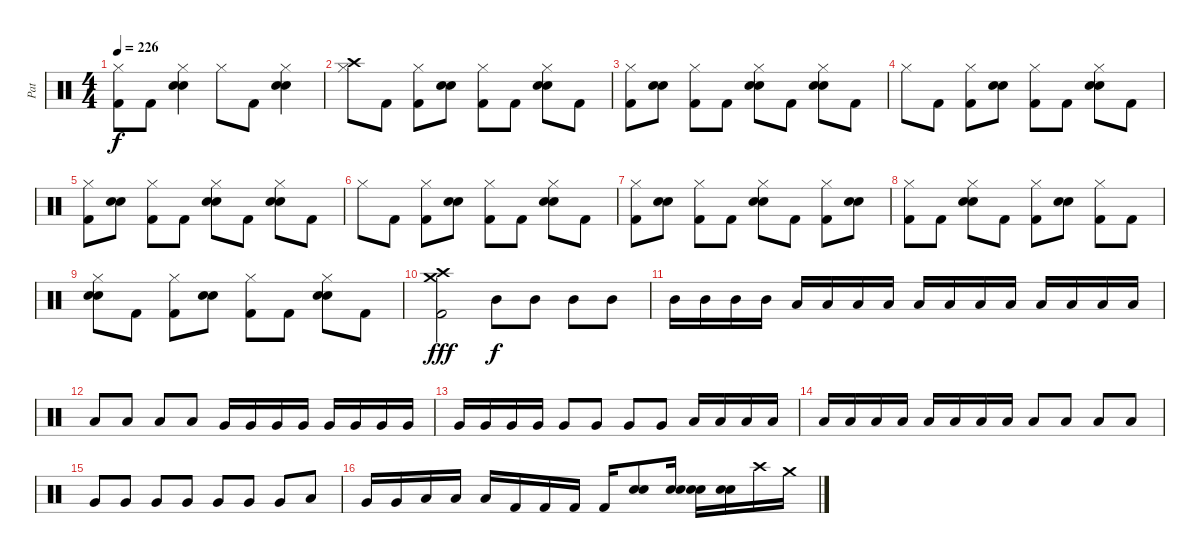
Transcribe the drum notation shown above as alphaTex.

\track ("Pat" "Pat") {instrument percussion}
\staff {score}
\articulation defaults
\ts (4 4)
\tempo 226
\clef neutral
\ks c
("Hi-Hat (closed)" "Kick (hit) 2").8{dy f} "Kick (hit) 2".8 ("Hi-Hat (closed)" "Snare (hit) 2" "Electric Snare (hit)").4 "Hi-Hat (closed)".8 "Kick (hit) 2".8 ("Hi-Hat (closed)" "Snare (hit) 2" "Electric Snare (hit)").4 |
("Hi-Hat (closed)" "Crash high (hit)").8 "Kick (hit) 2".8 ("Hi-Hat (closed)" "Kick (hit) 2").8 ("Snare (hit) 2" "Electric Snare (hit)").8 ("Hi-Hat (closed)" "Kick (hit) 2").8 "Kick (hit) 2".8 ("Hi-Hat (closed)" "Snare (hit) 2" "Electric Snare (hit)").8 "Kick (hit) 2".8 |
("Hi-Hat (closed)" "Kick (hit) 2").8 ("Snare (hit) 2" "Electric Snare (hit)").8 ("Hi-Hat (closed)" "Kick (hit) 2").8 "Kick (hit) 2".8 ("Hi-Hat (closed)" "Snare (hit) 2" "Electric Snare (hit)").8 "Kick (hit) 2".8 ("Hi-Hat (closed)" "Snare (hit) 2" "Electric Snare (hit)").8 "Kick (hit) 2".8 |
"Hi-Hat (closed)".8 "Kick (hit) 2".8 ("Hi-Hat (closed)" "Kick (hit) 2").8 ("Snare (hit) 2" "Electric Snare (hit)").8 ("Hi-Hat (closed)" "Kick (hit) 2").8 "Kick (hit) 2".8 ("Hi-Hat (closed)" "Snare (hit) 2" "Electric Snare (hit)").8 "Kick (hit) 2".8 |
("Hi-Hat (closed)" "Kick (hit) 2").8 ("Snare (hit) 2" "Electric Snare (hit)").8 ("Hi-Hat (closed)" "Kick (hit) 2").8 "Kick (hit) 2".8 ("Hi-Hat (closed)" "Snare (hit) 2" "Electric Snare (hit)").8 "Kick (hit) 2".8 ("Hi-Hat (closed)" "Snare (hit) 2" "Electric Snare (hit)").8 "Kick (hit) 2".8 |
"Hi-Hat (closed)".8 "Kick (hit) 2".8 ("Hi-Hat (closed)" "Kick (hit) 2").8 ("Snare (hit) 2" "Electric Snare (hit)").8 ("Hi-Hat (closed)" "Kick (hit) 2").8 "Kick (hit) 2".8 ("Hi-Hat (closed)" "Snare (hit) 2" "Electric Snare (hit)").8 "Kick (hit) 2".8 |
("Hi-Hat (closed)" "Kick (hit) 2").8 ("Snare (hit) 2" "Electric Snare (hit)").8 ("Hi-Hat (closed)" "Kick (hit) 2").8 "Kick (hit) 2".8 ("Hi-Hat (closed)" "Snare (hit) 2" "Electric Snare (hit)").8 "Kick (hit) 2".8 ("Hi-Hat (closed)" "Kick (hit) 2").8 ("Snare (hit) 2" "Electric Snare (hit)").8 |
("Hi-Hat (closed)" "Kick (hit) 2").8 "Kick (hit) 2".8 ("Hi-Hat (closed)" "Snare (hit) 2" "Electric Snare (hit)").8 "Kick (hit) 2".8 ("Hi-Hat (closed)" "Kick (hit) 2").8 ("Snare (hit) 2" "Electric Snare (hit)").8 ("Hi-Hat (closed)" "Kick (hit) 2").8 "Kick (hit) 2".8 |
("Hi-Hat (closed)" "Snare (hit) 2" "Electric Snare (hit)").8 "Kick (hit) 2".8 ("Hi-Hat (closed)" "Kick (hit) 2").8 ("Snare (hit) 2" "Electric Snare (hit)").8 ("Hi-Hat (closed)" "Kick (hit) 2").8 "Kick (hit) 2".8 ("Hi-Hat (closed)" "Snare (hit) 2" "Electric Snare (hit)").8 "Kick (hit) 2".8 |
("Crash medium (hit)" "Crash high (hit)" "Kick (hit) 2").2{dy fff} "Mid Tom (hit)".8{dy f} "Mid Tom (hit)".8 "Mid Tom (hit)".8 "Mid Tom (hit)".8 |
"Mid Tom (hit)".16 "Mid Tom (hit)".16 "Mid Tom (hit)".16 "Mid Tom (hit)".16 "Low Tom (hit)".16 "Low Tom (hit)".16 "Low Tom (hit)".16 "Low Tom (hit)".16 "Low Tom (hit)".16 "Low Tom (hit)".16 "Low Tom (hit)".16 "Low Tom (hit)".16 "Low Tom (hit)".16 "Low Tom (hit)".16 "Low Tom (hit)".16 "Low Tom (hit)".16 |
"Low Tom (hit)".8 "Low Tom (hit)".8 "Low Tom (hit)".8 "Low Tom (hit)".8 "Very Low Tom (hit)".16 "Very Low Tom (hit)".16 "Very Low Tom (hit)".16 "Very Low Tom (hit)".16 "Very Low Tom (hit)".16 "Very Low Tom (hit)".16 "Very Low Tom (hit)".16 "Very Low Tom (hit)".16 |
"Very Low Tom (hit)".16 "Very Low Tom (hit)".16 "Very Low Tom (hit)".16 "Very Low Tom (hit)".16 "Very Low Tom (hit)".8 "Very Low Tom (hit)".8 "Very Low Tom (hit)".8 "Very Low Tom (hit)".8 "Low Floor Tom (hit)".16 "Low Floor Tom (hit)".16 "Low Floor Tom (hit)".16 "Low Floor Tom (hit)".16 |
"Low Floor Tom (hit)".16 "Low Floor Tom (hit)".16 "Low Floor Tom (hit)".16 "Low Floor Tom (hit)".16 "Low Floor Tom (hit)".16 "Low Floor Tom (hit)".16 "Low Floor Tom (hit)".16 "Low Floor Tom (hit)".16 "Low Floor Tom (hit)".8 "Low Floor Tom (hit)".8 "Low Floor Tom (hit)".8 "Low Floor Tom (hit)".8 |
"Very Low Tom (hit)".8 "Very Low Tom (hit)".8 "Very Low Tom (hit)".8 "Very Low Tom (hit)".8 "Very Low Tom (hit)".8 "Very Low Tom (hit)".8 "Very Low Tom (hit)".8 "Low Floor Tom (hit)".8 |
"Very Low Tom (hit)".16 "Very Low Tom (hit)".16 "Low Tom (hit)".16 "Low Tom (hit)".16 "Low Tom (hit)".16 "Kick (hit) 2".16 "Kick (hit) 2".16 "Kick (hit) 2".16 "Kick (hit) 2".16 ("Snare (hit) 2" "Electric Snare (hit)").8 ("Snare (hit) 2" "Electric Snare (hit)").16 ("Snare (hit) 2" "Electric Snare (hit)").16 ("Snare (hit) 2" "Electric Snare (hit)").16 "Crash high (hit)".16 "Crash medium (hit)".16
